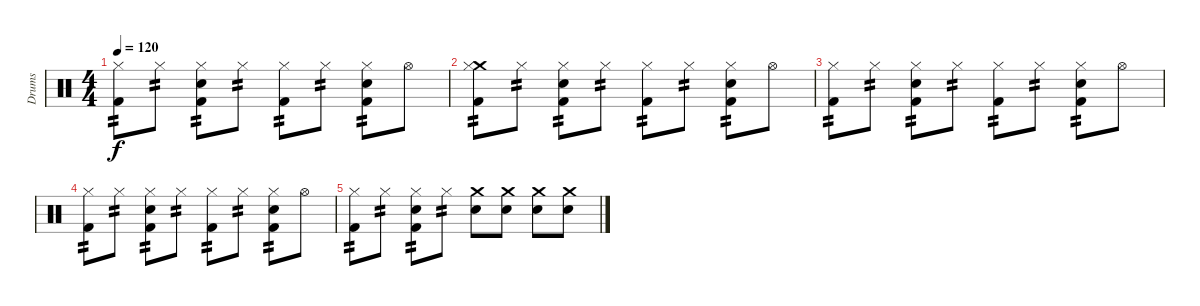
\track ("Drums" "Drums") {instrument percussion}
\staff {score}
\articulation defaults
\ts (4 4)
\tempo 120
\clef neutral
\ks c
("Hi-Hat (closed)" "Kick (hit) 2").8{tp 2 dy f} "Hi-Hat (closed)".8{tp 2} ("Hi-Hat (closed)" "Snare (hit) 2" "Kick (hit) 2").8{tp 2} "Hi-Hat (closed)".8{tp 2} ("Hi-Hat (closed)" "Kick (hit) 2").8{tp 2} "Hi-Hat (closed)".8{tp 2} ("Hi-Hat (closed)" "Snare (hit) 2" "Kick (hit) 2").8{tp 2} "Hi-Hat (open)".8 |
("Crash medium (hit)" "Hi-Hat (closed)" "Kick (hit) 2").8{tp 2} "Hi-Hat (closed)".8{tp 2} ("Hi-Hat (closed)" "Snare (hit) 2" "Kick (hit) 2").8{tp 2} "Hi-Hat (closed)".8{tp 2} ("Hi-Hat (closed)" "Kick (hit) 2").8{tp 2} "Hi-Hat (closed)".8{tp 2} ("Hi-Hat (closed)" "Snare (hit) 2" "Kick (hit) 2").8{tp 2} "Hi-Hat (open)".8 |
("Hi-Hat (closed)" "Kick (hit) 2").8{tp 2} "Hi-Hat (closed)".8{tp 2} ("Hi-Hat (closed)" "Snare (hit) 2" "Kick (hit) 2").8{tp 2} "Hi-Hat (closed)".8{tp 2} ("Hi-Hat (closed)" "Kick (hit) 2").8{tp 2} "Hi-Hat (closed)".8{tp 2} ("Hi-Hat (closed)" "Snare (hit) 2" "Kick (hit) 2").8{tp 2} "Hi-Hat (open)".8 |
("Hi-Hat (closed)" "Kick (hit) 2").8{tp 2} "Hi-Hat (closed)".8{tp 2} ("Hi-Hat (closed)" "Snare (hit) 2" "Kick (hit) 2").8{tp 2} "Hi-Hat (closed)".8{tp 2} ("Hi-Hat (closed)" "Kick (hit) 2").8{tp 2} "Hi-Hat (closed)".8{tp 2} ("Hi-Hat (closed)" "Snare (hit) 2" "Kick (hit) 2").8{tp 2} "Hi-Hat (open)".8 |
("Hi-Hat (closed)" "Kick (hit) 2").8{tp 2} "Hi-Hat (closed)".8{tp 2} ("Hi-Hat (closed)" "Snare (hit) 2" "Kick (hit) 2").8{tp 2} "Hi-Hat (closed)".8{tp 2} ("Crash medium (hit)" "Snare (hit) 2").8 ("Crash medium (hit)" "Snare (hit) 2").8 ("Crash medium (hit)" "Snare (hit) 2").8 ("Crash medium (hit)" "Snare (hit) 2").8
